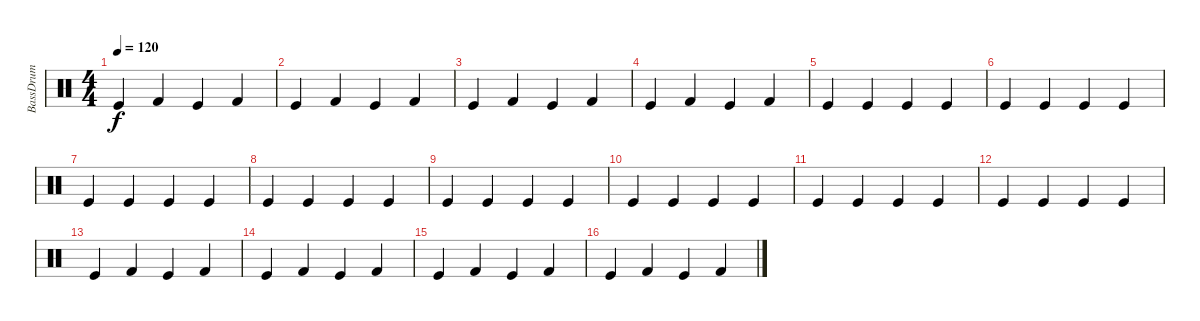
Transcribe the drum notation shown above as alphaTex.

\track ("BassDrum" "BassDrum") {instrument percussion}
\staff {score}
\articulation defaults
\ts (4 4)
\tempo 120
\clef neutral
\ks c "Kick (hit)".4{dy f} "Kick (hit) 2".4 "Kick (hit)".4 "Kick (hit) 2".4
|
"Kick (hit)".4 "Kick (hit) 2".4 "Kick (hit)".4 "Kick (hit) 2".4 |
"Kick (hit)".4 "Kick (hit) 2".4 "Kick (hit)".4 "Kick (hit) 2".4 |
"Kick (hit)".4 "Kick (hit) 2".4 "Kick (hit)".4 "Kick (hit) 2".4 |
"Kick (hit)".4 "Kick (hit)".4 "Kick (hit)".4 "Kick (hit)".4 |
"Kick (hit)".4 "Kick (hit)".4 "Kick (hit)".4 "Kick (hit)".4 |
"Kick (hit)".4 "Kick (hit)".4 "Kick (hit)".4 "Kick (hit)".4 |
"Kick (hit)".4 "Kick (hit)".4 "Kick (hit)".4 "Kick (hit)".4 |
"Kick (hit)".4 "Kick (hit)".4 "Kick (hit)".4 "Kick (hit)".4 |
"Kick (hit)".4 "Kick (hit)".4 "Kick (hit)".4 "Kick (hit)".4 |
"Kick (hit)".4 "Kick (hit)".4 "Kick (hit)".4 "Kick (hit)".4 |
"Kick (hit)".4 "Kick (hit)".4 "Kick (hit)".4 "Kick (hit)".4 |
"Kick (hit)".4 "Kick (hit) 2".4 "Kick (hit)".4 "Kick (hit) 2".4 |
"Kick (hit)".4 "Kick (hit) 2".4 "Kick (hit)".4 "Kick (hit) 2".4 |
"Kick (hit)".4 "Kick (hit) 2".4 "Kick (hit)".4 "Kick (hit) 2".4 |
"Kick (hit)".4 "Kick (hit) 2".4 "Kick (hit)".4 "Kick (hit) 2".4
